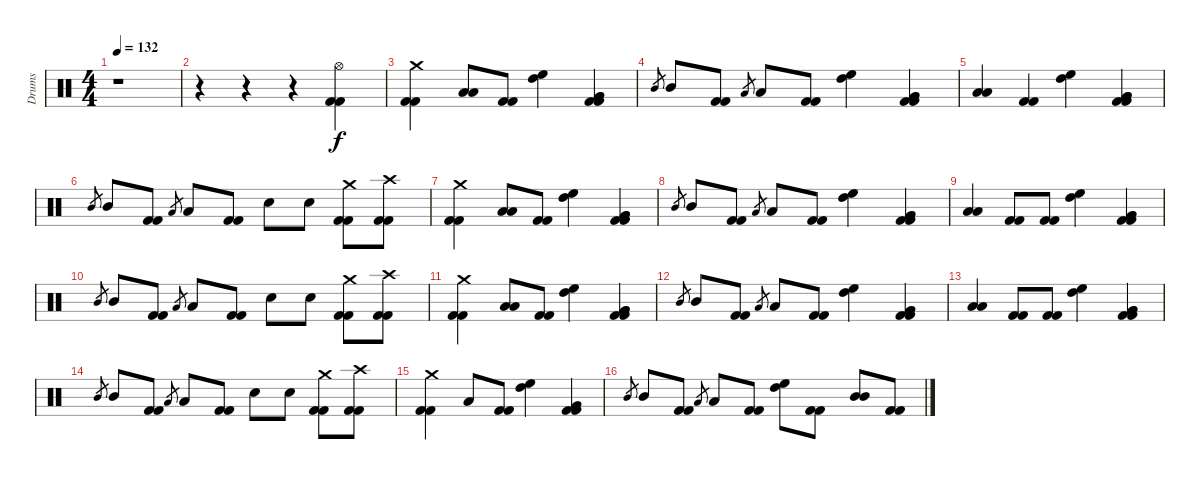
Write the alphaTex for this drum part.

\track ("Drums" "Drums") {instrument percussion}
\staff {score}
\articulation defaults
\ts (4 4)
\tempo 132
\clef neutral
\ks c
r.1{dy f} |
r.4 r.4 r.4 ("Hi-Hat (open)" "Kick (hit) 2" "Kick (hit) 2").4 |
("Crash medium (hit)" "Kick (hit) 2" "Kick (hit) 2").4 ("Low Tom (hit)" "Low Tom (hit)").8 ("Kick (hit) 2" "Kick (hit) 2").8 ("High Floor Tom (hit)" "High Tom (hit)").4 ("Very Low Tom (hit)" "Very Low Tom (hit)" "Kick (hit) 2" "Kick (hit) 2").4 |
"Mid Tom (hit)".8{gr} "Mid Tom (hit)".8 ("Kick (hit) 2" "Kick (hit) 2").8 "Low Tom (hit)".8{gr} "Low Tom (hit)".8 ("Kick (hit) 2" "Kick (hit) 2").8 ("High Floor Tom (hit)" "High Tom (hit)").4 ("Very Low Tom (hit)" "Very Low Tom (hit)" "Kick (hit) 2" "Kick (hit) 2").4 |
("Low Tom (hit)" "Low Tom (hit)").4 ("Kick (hit) 2" "Kick (hit) 2").4 ("High Floor Tom (hit)" "High Tom (hit)").4 ("Very Low Tom (hit)" "Very Low Tom (hit)" "Kick (hit) 2" "Kick (hit) 2").4 |
"Mid Tom (hit)".8{gr} "Mid Tom (hit)".8 ("Kick (hit) 2" "Kick (hit) 2").8 "Low Tom (hit)".8{gr} "Low Tom (hit)".8 ("Kick (hit) 2" "Kick (hit) 2").8 "Electric Snare (hit)".8 "Electric Snare (hit)".8 ("Crash medium (hit)" "Kick (hit) 2" "Kick (hit) 2").8 ("Crash high (hit)" "Kick (hit) 2" "Kick (hit) 2").8 |
("Crash medium (hit)" "Kick (hit) 2" "Kick (hit) 2").4 ("Low Tom (hit)" "Low Tom (hit)").8 ("Kick (hit) 2" "Kick (hit) 2").8 ("High Floor Tom (hit)" "High Tom (hit)").4 ("Very Low Tom (hit)" "Very Low Tom (hit)" "Kick (hit) 2" "Kick (hit) 2").4 |
"Mid Tom (hit)".8{gr} "Mid Tom (hit)".8 ("Kick (hit) 2" "Kick (hit) 2").8 "Low Tom (hit)".8{gr} "Low Tom (hit)".8 ("Kick (hit) 2" "Kick (hit) 2").8 ("High Floor Tom (hit)" "High Tom (hit)").4 ("Very Low Tom (hit)" "Very Low Tom (hit)" "Kick (hit) 2" "Kick (hit) 2").4 |
("Low Tom (hit)" "Low Tom (hit)").4 ("Kick (hit) 2" "Kick (hit) 2").8 ("Kick (hit) 2" "Kick (hit) 2").8 ("High Floor Tom (hit)" "High Tom (hit)").4 ("Very Low Tom (hit)" "Very Low Tom (hit)" "Kick (hit) 2" "Kick (hit) 2").4 |
"Mid Tom (hit)".8{gr} "Mid Tom (hit)".8 ("Kick (hit) 2" "Kick (hit) 2").8 "Low Tom (hit)".8{gr} "Low Tom (hit)".8 ("Kick (hit) 2" "Kick (hit) 2").8 "Electric Snare (hit)".8 "Electric Snare (hit)".8 ("Crash medium (hit)" "Kick (hit) 2" "Kick (hit) 2").8 ("Crash high (hit)" "Kick (hit) 2" "Kick (hit) 2").8 |
("Crash medium (hit)" "Kick (hit) 2" "Kick (hit) 2").4 ("Low Tom (hit)" "Low Tom (hit)").8 ("Kick (hit) 2" "Kick (hit) 2").8 ("High Floor Tom (hit)" "High Tom (hit)").4 ("Very Low Tom (hit)" "Very Low Tom (hit)" "Kick (hit) 2" "Kick (hit) 2").4 |
"Mid Tom (hit)".8{gr} "Mid Tom (hit)".8 ("Kick (hit) 2" "Kick (hit) 2").8 "Low Tom (hit)".8{gr} "Low Tom (hit)".8 ("Kick (hit) 2" "Kick (hit) 2").8 ("High Floor Tom (hit)" "High Tom (hit)").4 ("Very Low Tom (hit)" "Very Low Tom (hit)" "Kick (hit) 2" "Kick (hit) 2").4 |
("Low Tom (hit)" "Low Tom (hit)").4 ("Kick (hit) 2" "Kick (hit) 2").8 ("Kick (hit) 2" "Kick (hit) 2").8 ("High Floor Tom (hit)" "High Tom (hit)").4 ("Very Low Tom (hit)" "Very Low Tom (hit)" "Kick (hit) 2" "Kick (hit) 2").4 |
"Mid Tom (hit)".8{gr} "Mid Tom (hit)".8 ("Kick (hit) 2" "Kick (hit) 2").8 "Low Tom (hit)".8{gr} "Low Tom (hit)".8 ("Kick (hit) 2" "Kick (hit) 2").8 "Electric Snare (hit)".8 "Electric Snare (hit)".8 ("Crash medium (hit)" "Kick (hit) 2" "Kick (hit) 2").8 ("Crash high (hit)" "Kick (hit) 2" "Kick (hit) 2").8 |
("Crash medium (hit)" "Kick (hit) 2" "Kick (hit) 2").4 "Low Tom (hit)".8 ("Kick (hit) 2" "Kick (hit) 2").8 ("High Floor Tom (hit)" "High Tom (hit)").4 ("Very Low Tom (hit)" "Kick (hit) 2" "Kick (hit) 2").4 |
"Mid Tom (hit)".8{gr} "Mid Tom (hit)".8 ("Kick (hit) 2" "Kick (hit) 2").8 "Low Tom (hit)".8{gr} "Low Tom (hit)".8 ("Kick (hit) 2" "Kick (hit) 2").8 ("High Floor Tom (hit)" "High Tom (hit)").8 ("Kick (hit) 2" "Kick (hit) 2").8 ("Mid Tom (hit)" "Mid Tom (hit)").8 ("Kick (hit) 2" "Kick (hit) 2").8
